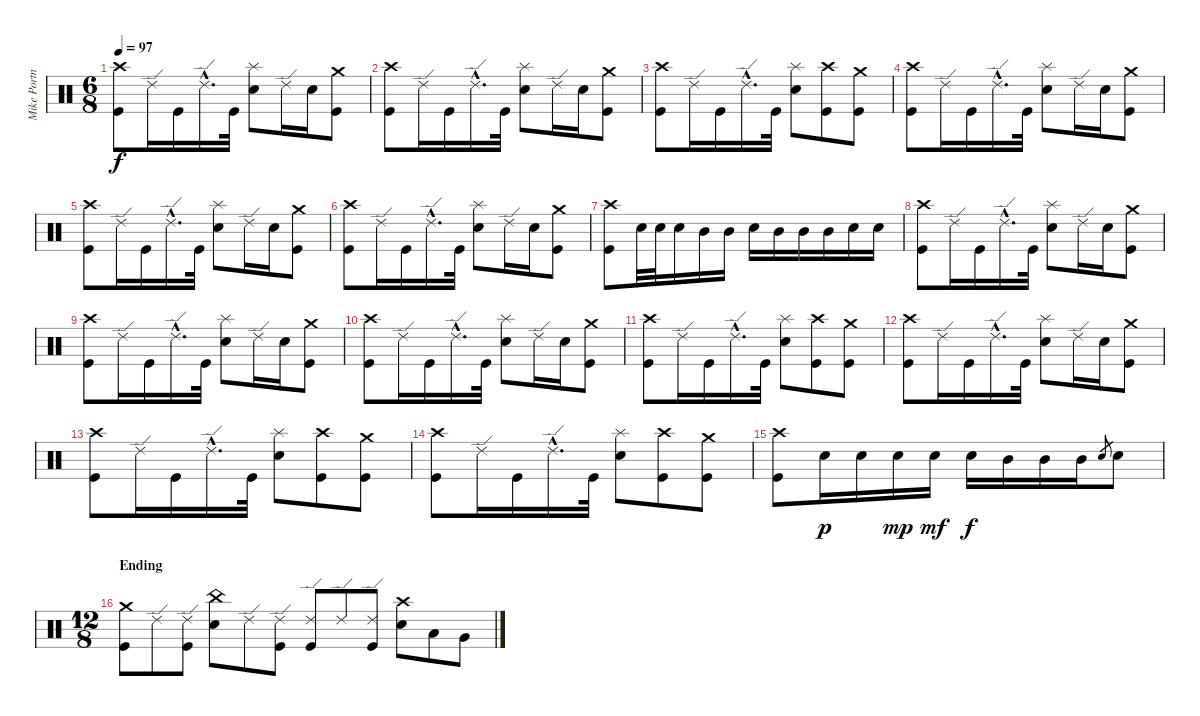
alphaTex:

\track ("Mike Portnoy" "Mike Portn") {instrument percussion}
\staff {score}
\articulation defaults
\ts (6 8)
\tempo 97
\clef neutral
\ks c
("Crash high (hit)" "Kick (hit)").8{dy f} "Ride (edge) 2".16 "Kick (hit)".16 "Ride (edge) 2"{hac}.16{d} "Kick (hit)".32 ("Splash (hit)" "Snare (hit) 2").8 "Ride (edge) 2".16 "Snare (hit) 2".16 ("Crash medium (hit)" "Kick (hit)").8 |
("Crash high (hit)" "Kick (hit)").8 "Ride (edge) 2".16 "Kick (hit)".16 "Ride (edge) 2"{hac}.16{d} "Kick (hit)".32 ("Splash (hit)" "Snare (hit) 2").8 "Ride (edge) 2".16 "Snare (hit) 2".16 ("Crash medium (hit)" "Kick (hit)").8 |
("Crash high (hit)" "Kick (hit)").8 "Ride (edge) 2".16 "Kick (hit)".16 "Ride (edge) 2"{hac}.16{d} "Kick (hit)".32 ("Splash (hit)" "Snare (hit) 2").8 ("Crash high (hit)" "Kick (hit)").8 ("Crash medium (hit)" "Kick (hit)").8 |
("Crash high (hit)" "Kick (hit)").8 "Ride (edge) 2".16 "Kick (hit)".16 "Ride (edge) 2"{hac}.16{d} "Kick (hit)".32 ("Splash (hit)" "Snare (hit) 2").8 "Ride (edge) 2".16 "Snare (hit) 2".16 ("Crash medium (hit)" "Kick (hit)").8 |
("Crash high (hit)" "Kick (hit)").8 "Ride (edge) 2".16 "Kick (hit)".16 "Ride (edge) 2"{hac}.16{d} "Kick (hit)".32 ("Splash (hit)" "Snare (hit) 2").8 "Ride (edge) 2".16 "Snare (hit) 2".16 ("Crash medium (hit)" "Kick (hit)").8 |
("Crash high (hit)" "Kick (hit)").8 "Ride (edge) 2".16 "Kick (hit)".16 "Ride (edge) 2"{hac}.16{d} "Kick (hit)".32 ("Splash (hit)" "Snare (hit) 2").8 "Ride (edge) 2".16 "Snare (hit) 2".16 ("Crash medium (hit)" "Kick (hit)").8 |
("Crash high (hit)" "Kick (hit)").8 "Snare (hit) 2".32 "Snare (hit) 2".32 "Snare (hit) 2".16 "Mid Tom (hit)".16 "Mid Tom (hit)".16 "Snare (hit) 2".16 "Mid Tom (hit)".16 "Mid Tom (hit)".16 "Mid Tom (hit)".16 "Snare (hit) 2".16 "Snare (hit) 2".16 |
("Crash high (hit)" "Kick (hit)").8 "Ride (edge) 2".16 "Kick (hit)".16 "Ride (edge) 2"{hac}.16{d} "Kick (hit)".32 ("Splash (hit)" "Snare (hit) 2").8 "Ride (edge) 2".16 "Snare (hit) 2".16 ("Crash medium (hit)" "Kick (hit)").8 |
("Crash high (hit)" "Kick (hit)").8 "Ride (edge) 2".16 "Kick (hit)".16 "Ride (edge) 2"{hac}.16{d} "Kick (hit)".32 ("Splash (hit)" "Snare (hit) 2").8 "Ride (edge) 2".16 "Snare (hit) 2".16 ("Crash medium (hit)" "Kick (hit)").8 |
("Crash high (hit)" "Kick (hit)").8 "Ride (edge) 2".16 "Kick (hit)".16 "Ride (edge) 2"{hac}.16{d} "Kick (hit)".32 ("Splash (hit)" "Snare (hit) 2").8 "Ride (edge) 2".16 "Snare (hit) 2".16 ("Crash medium (hit)" "Kick (hit)").8 |
("Crash high (hit)" "Kick (hit)").8 "Ride (edge) 2".16 "Kick (hit)".16 "Ride (edge) 2"{hac}.16{d} "Kick (hit)".32 ("Splash (hit)" "Snare (hit) 2").8 ("Crash high (hit)" "Kick (hit)").8 ("Crash medium (hit)" "Kick (hit)").8 |
("Crash high (hit)" "Kick (hit)").8 "Ride (edge) 2".16 "Kick (hit)".16 "Ride (edge) 2"{hac}.16{d} "Kick (hit)".32 ("Splash (hit)" "Snare (hit) 2").8 "Ride (edge) 2".16 "Snare (hit) 2".16 ("Crash medium (hit)" "Kick (hit)").8 |
("Crash high (hit)" "Kick (hit)").8 "Ride (edge) 2".16 "Kick (hit)".16 "Ride (edge) 2"{hac}.16{d} "Kick (hit)".32 ("Splash (hit)" "Snare (hit) 2").8 ("Crash high (hit)" "Kick (hit)").8 ("Crash medium (hit)" "Kick (hit)").8 |
("Crash high (hit)" "Kick (hit)").8 "Ride (edge) 2".16 "Kick (hit)".16 "Ride (edge) 2"{hac}.16{d} "Kick (hit)".32 ("Splash (hit)" "Snare (hit) 2").8 ("Crash high (hit)" "Kick (hit)").8 ("Crash medium (hit)" "Kick (hit)").8 |
("Crash high (hit)" "Kick (hit)").8 "Snare (hit) 2".16{dy p} "Snare (hit) 2".16 "Snare (hit) 2".16{dy mp} "Snare (hit) 2".16{dy mf} "Snare (hit) 2".16{dy f} "Mid Tom (hit)".16 "Mid Tom (hit)".16 "Mid Tom (hit)".16 "Snare (hit) 2".8{gr} "Snare (hit) 2".8 |
\ts (12 8)
\section ("" "Ending")
("Crash medium (hit)" "Kick (hit)").8 "Ride (edge) 2".8 ("Ride (edge) 2" "Kick (hit)").8 ("China (hit)" "Snare (hit) 2").8 "Ride (edge) 2".8 ("Ride (edge) 2" "Kick (hit)").8 ("Ride (edge) 2" "Kick (hit)").8 "Ride (edge) 2".8 ("Ride (edge) 2" "Kick (hit)").8 ("Crash high (hit)" "Snare (hit) 2").8 "Low Tom (hit)".8 "Very Low Tom (hit)".8
